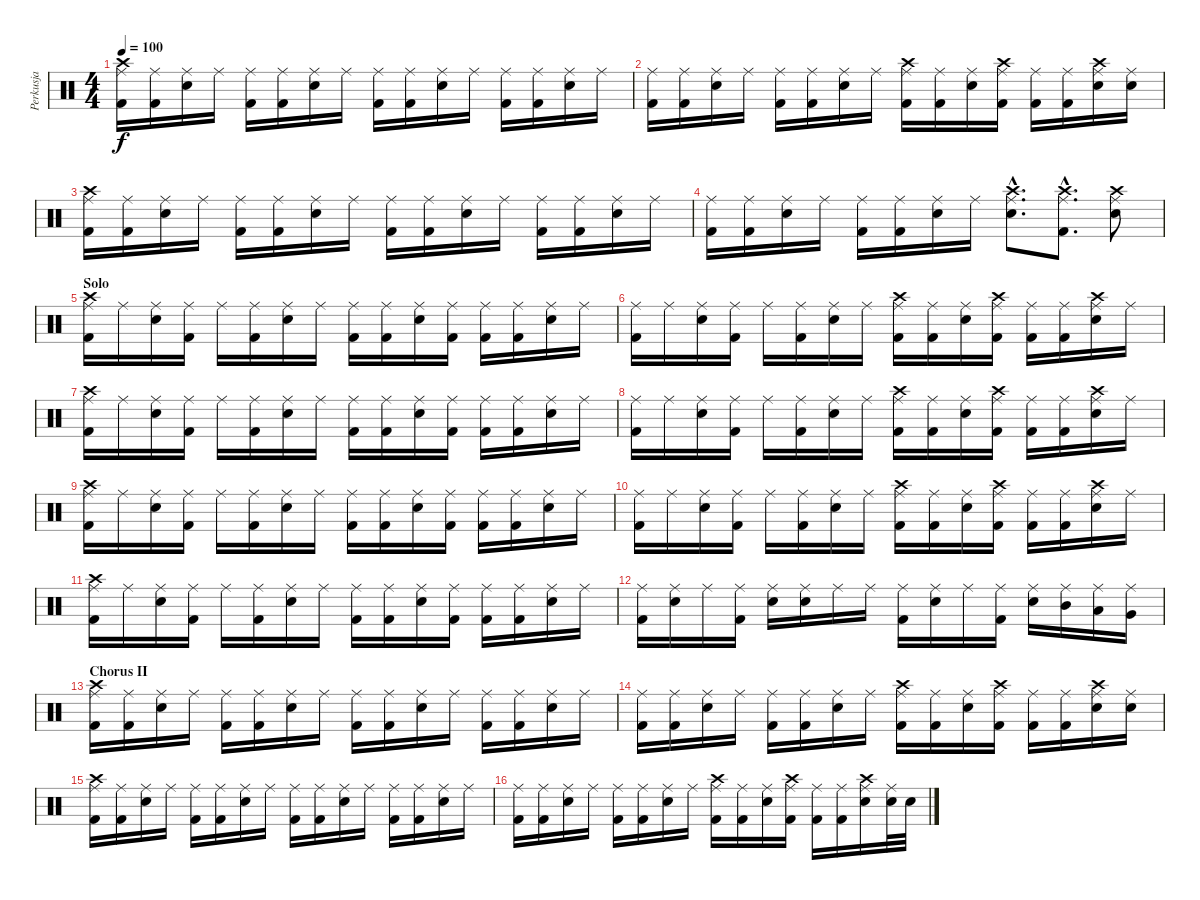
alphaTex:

\track ("Perkusja" "Perkusja") {instrument percussion}
\staff {score}
\articulation defaults
\ts (4 4)
\tempo 100
\clef neutral
\ks c
("Kick (hit) 2" "Ride (middle)" "Crash high (hit)").16{dy f} ("Kick (hit) 2" "Ride (middle)").16 ("Snare (hit) 2" "Ride (middle)").16 "Ride (middle)".16 ("Kick (hit) 2" "Ride (middle)").16 ("Kick (hit) 2" "Ride (middle)").16 ("Snare (hit) 2" "Ride (middle)").16 "Ride (middle)".16 ("Kick (hit) 2" "Ride (middle)").16 ("Kick (hit) 2" "Ride (middle)").16 ("Snare (hit) 2" "Ride (middle)").16 "Ride (middle)".16 ("Kick (hit) 2" "Ride (middle)").16 ("Kick (hit) 2" "Ride (middle)").16 ("Snare (hit) 2" "Ride (middle)").16 "Ride (middle)".16 |
("Kick (hit) 2" "Ride (middle)").16 ("Kick (hit) 2" "Ride (middle)").16 ("Snare (hit) 2" "Ride (middle)").16 "Ride (middle)".16 ("Kick (hit) 2" "Ride (middle)").16 ("Kick (hit) 2" "Ride (middle)").16 ("Snare (hit) 2" "Ride (middle)").16 "Ride (middle)".16 ("Kick (hit) 2" "Ride (middle)" "Crash high (hit)").16 ("Kick (hit) 2" "Ride (middle)").16 ("Snare (hit) 2" "Ride (middle)").16 ("Kick (hit) 2" "Ride (middle)" "Crash high (hit)").16 ("Kick (hit) 2" "Ride (middle)").16 ("Kick (hit) 2" "Ride (middle)").16 ("Snare (hit) 2" "Ride (middle)" "Crash high (hit)").16 ("Snare (hit) 2" "Ride (middle)").16 |
("Kick (hit) 2" "Ride (middle)" "Crash high (hit)").16 ("Kick (hit) 2" "Ride (middle)").16 ("Snare (hit) 2" "Ride (middle)").16 "Ride (middle)".16 ("Kick (hit) 2" "Ride (middle)").16 ("Kick (hit) 2" "Ride (middle)").16 ("Snare (hit) 2" "Ride (middle)").16 "Ride (middle)".16 ("Kick (hit) 2" "Ride (middle)").16 ("Kick (hit) 2" "Ride (middle)").16 ("Snare (hit) 2" "Ride (middle)").16 "Ride (middle)".16 ("Kick (hit) 2" "Ride (middle)").16 ("Kick (hit) 2" "Ride (middle)").16 ("Snare (hit) 2" "Ride (middle)").16 "Ride (middle)".16 |
("Kick (hit) 2" "Ride (middle)").16 ("Kick (hit) 2" "Ride (middle)").16 ("Snare (hit) 2" "Ride (middle)").16 "Ride (middle)".16 ("Kick (hit) 2" "Ride (middle)").16 ("Kick (hit) 2" "Ride (middle)").16 ("Snare (hit) 2" "Ride (middle)").16 "Ride (middle)".16 ("Snare (hit) 2"{hac} "Ride (middle)"{hac} "Crash high (hit)"{hac}).8{d} ("Kick (hit) 2"{hac} "Ride (middle)"{hac} "Crash high (hit)"{hac}).8{d} ("Snare (hit) 2" "Ride (middle)" "Crash high (hit)").8 |
\section ("" "Solo")
("Kick (hit) 2" "Ride (middle)" "Crash high (hit)").16 "Ride (middle)".16 ("Snare (hit) 2" "Ride (middle)").16 ("Kick (hit) 2" "Ride (middle)").16 "Ride (middle)".16 ("Kick (hit) 2" "Ride (middle)").16 ("Snare (hit) 2" "Ride (middle)").16 "Ride (middle)".16 ("Kick (hit) 2" "Ride (middle)").16 ("Kick (hit) 2" "Ride (middle)").16 ("Snare (hit) 2" "Ride (middle)").16 ("Kick (hit) 2" "Ride (middle)").16 ("Kick (hit) 2" "Ride (middle)").16 ("Kick (hit) 2" "Ride (middle)").16 ("Snare (hit) 2" "Ride (middle)").16 "Ride (middle)".16 |
("Kick (hit) 2" "Ride (middle)").16 "Ride (middle)".16 ("Snare (hit) 2" "Ride (middle)").16 ("Kick (hit) 2" "Ride (middle)").16 "Ride (middle)".16 ("Kick (hit) 2" "Ride (middle)").16 ("Snare (hit) 2" "Ride (middle)").16 "Ride (middle)".16 ("Kick (hit) 2" "Ride (middle)" "Crash high (hit)").16 ("Kick (hit) 2" "Ride (middle)").16 ("Snare (hit) 2" "Ride (middle)").16 ("Kick (hit) 2" "Ride (middle)" "Crash high (hit)").16 ("Kick (hit) 2" "Ride (middle)").16 ("Kick (hit) 2" "Ride (middle)").16 ("Snare (hit) 2" "Ride (middle)" "Crash high (hit)").16 "Ride (middle)".16 |
("Kick (hit) 2" "Ride (middle)" "Crash high (hit)").16 "Ride (middle)".16 ("Snare (hit) 2" "Ride (middle)").16 ("Kick (hit) 2" "Ride (middle)").16 "Ride (middle)".16 ("Kick (hit) 2" "Ride (middle)").16 ("Snare (hit) 2" "Ride (middle)").16 "Ride (middle)".16 ("Kick (hit) 2" "Ride (middle)").16 ("Kick (hit) 2" "Ride (middle)").16 ("Snare (hit) 2" "Ride (middle)").16 ("Kick (hit) 2" "Ride (middle)").16 ("Kick (hit) 2" "Ride (middle)").16 ("Kick (hit) 2" "Ride (middle)").16 ("Snare (hit) 2" "Ride (middle)").16 "Ride (middle)".16 |
("Kick (hit) 2" "Ride (middle)").16 "Ride (middle)".16 ("Snare (hit) 2" "Ride (middle)").16 ("Kick (hit) 2" "Ride (middle)").16 "Ride (middle)".16 ("Kick (hit) 2" "Ride (middle)").16 ("Snare (hit) 2" "Ride (middle)").16 "Ride (middle)".16 ("Kick (hit) 2" "Ride (middle)" "Crash high (hit)").16 ("Kick (hit) 2" "Ride (middle)").16 ("Snare (hit) 2" "Ride (middle)").16 ("Kick (hit) 2" "Ride (middle)" "Crash high (hit)").16 ("Kick (hit) 2" "Ride (middle)").16 ("Kick (hit) 2" "Ride (middle)").16 ("Snare (hit) 2" "Ride (middle)" "Crash high (hit)").16 "Ride (middle)".16 |
("Kick (hit) 2" "Ride (middle)" "Crash high (hit)").16 "Ride (middle)".16 ("Snare (hit) 2" "Ride (middle)").16 ("Kick (hit) 2" "Ride (middle)").16 "Ride (middle)".16 ("Kick (hit) 2" "Ride (middle)").16 ("Snare (hit) 2" "Ride (middle)").16 "Ride (middle)".16 ("Kick (hit) 2" "Ride (middle)").16 ("Kick (hit) 2" "Ride (middle)").16 ("Snare (hit) 2" "Ride (middle)").16 ("Kick (hit) 2" "Ride (middle)").16 ("Kick (hit) 2" "Ride (middle)").16 ("Kick (hit) 2" "Ride (middle)").16 ("Snare (hit) 2" "Ride (middle)").16 "Ride (middle)".16 |
("Kick (hit) 2" "Ride (middle)").16 "Ride (middle)".16 ("Snare (hit) 2" "Ride (middle)").16 ("Kick (hit) 2" "Ride (middle)").16 "Ride (middle)".16 ("Kick (hit) 2" "Ride (middle)").16 ("Snare (hit) 2" "Ride (middle)").16 "Ride (middle)".16 ("Kick (hit) 2" "Ride (middle)" "Crash high (hit)").16 ("Kick (hit) 2" "Ride (middle)").16 ("Snare (hit) 2" "Ride (middle)").16 ("Kick (hit) 2" "Ride (middle)" "Crash high (hit)").16 ("Kick (hit) 2" "Ride (middle)").16 ("Kick (hit) 2" "Ride (middle)").16 ("Snare (hit) 2" "Ride (middle)" "Crash high (hit)").16 "Ride (middle)".16 |
("Kick (hit) 2" "Ride (middle)" "Crash high (hit)").16 "Ride (middle)".16 ("Snare (hit) 2" "Ride (middle)").16 ("Kick (hit) 2" "Ride (middle)").16 "Ride (middle)".16 ("Kick (hit) 2" "Ride (middle)").16 ("Snare (hit) 2" "Ride (middle)").16 "Ride (middle)".16 ("Kick (hit) 2" "Ride (middle)").16 ("Kick (hit) 2" "Ride (middle)").16 ("Snare (hit) 2" "Ride (middle)").16 ("Kick (hit) 2" "Ride (middle)").16 ("Kick (hit) 2" "Ride (middle)").16 ("Kick (hit) 2" "Ride (middle)").16 ("Snare (hit) 2" "Ride (middle)").16 "Ride (middle)".16 |
("Kick (hit) 2" "Ride (middle)").16 ("Snare (hit) 2" "Ride (middle)").16 "Ride (middle)".16 ("Kick (hit) 2" "Ride (middle)").16 ("Snare (hit) 2" "Ride (middle)").16 ("Snare (hit) 2" "Ride (middle)").16 "Ride (middle)".16 "Ride (middle)".16 ("Kick (hit) 2" "Ride (middle)").16 ("Snare (hit) 2" "Ride (middle)").16 "Ride (middle)".16 ("Kick (hit) 2" "Ride (middle)").16 ("Snare (hit) 2" "Ride (middle)").16 ("Mid Tom (hit)" "Ride (middle)").16 ("Low Tom (hit)" "Ride (middle)").16 ("Very Low Tom (hit)" "Ride (middle)").16 |
\section ("" "Chorus II")
("Kick (hit) 2" "Ride (middle)" "Crash high (hit)").16 ("Kick (hit) 2" "Ride (middle)").16 ("Snare (hit) 2" "Ride (middle)").16 "Ride (middle)".16 ("Kick (hit) 2" "Ride (middle)").16 ("Kick (hit) 2" "Ride (middle)").16 ("Snare (hit) 2" "Ride (middle)").16 "Ride (middle)".16 ("Kick (hit) 2" "Ride (middle)").16 ("Kick (hit) 2" "Ride (middle)").16 ("Snare (hit) 2" "Ride (middle)").16 "Ride (middle)".16 ("Kick (hit) 2" "Ride (middle)").16 ("Kick (hit) 2" "Ride (middle)").16 ("Snare (hit) 2" "Ride (middle)").16 "Ride (middle)".16 |
("Kick (hit) 2" "Ride (middle)").16 ("Kick (hit) 2" "Ride (middle)").16 ("Snare (hit) 2" "Ride (middle)").16 "Ride (middle)".16 ("Kick (hit) 2" "Ride (middle)").16 ("Kick (hit) 2" "Ride (middle)").16 ("Snare (hit) 2" "Ride (middle)").16 "Ride (middle)".16 ("Kick (hit) 2" "Ride (middle)" "Crash high (hit)").16 ("Kick (hit) 2" "Ride (middle)").16 ("Snare (hit) 2" "Ride (middle)").16 ("Kick (hit) 2" "Ride (middle)" "Crash high (hit)").16 ("Kick (hit) 2" "Ride (middle)").16 ("Kick (hit) 2" "Ride (middle)").16 ("Snare (hit) 2" "Ride (middle)" "Crash high (hit)").16 ("Snare (hit) 2" "Ride (middle)").16 |
("Kick (hit) 2" "Ride (middle)" "Crash high (hit)").16 ("Kick (hit) 2" "Ride (middle)").16 ("Snare (hit) 2" "Ride (middle)").16 "Ride (middle)".16 ("Kick (hit) 2" "Ride (middle)").16 ("Kick (hit) 2" "Ride (middle)").16 ("Snare (hit) 2" "Ride (middle)").16 "Ride (middle)".16 ("Kick (hit) 2" "Ride (middle)").16 ("Kick (hit) 2" "Ride (middle)").16 ("Snare (hit) 2" "Ride (middle)").16 "Ride (middle)".16 ("Kick (hit) 2" "Ride (middle)").16 ("Kick (hit) 2" "Ride (middle)").16 ("Snare (hit) 2" "Ride (middle)").16 "Ride (middle)".16 |
("Kick (hit) 2" "Ride (middle)").16 ("Kick (hit) 2" "Ride (middle)").16 ("Snare (hit) 2" "Ride (middle)").16 "Ride (middle)".16 ("Kick (hit) 2" "Ride (middle)").16 ("Kick (hit) 2" "Ride (middle)").16 ("Snare (hit) 2" "Ride (middle)").16 "Ride (middle)".16 ("Kick (hit) 2" "Ride (middle)" "Crash high (hit)").16 ("Kick (hit) 2" "Ride (middle)").16 ("Snare (hit) 2" "Ride (middle)").16 ("Kick (hit) 2" "Ride (middle)" "Crash high (hit)").16 ("Kick (hit) 2" "Ride (middle)").16 ("Kick (hit) 2" "Ride (middle)").16 ("Snare (hit) 2" "Ride (middle)" "Crash high (hit)").16 ("Snare (hit) 2" "Ride (middle)").32 "Snare (hit) 2".32
